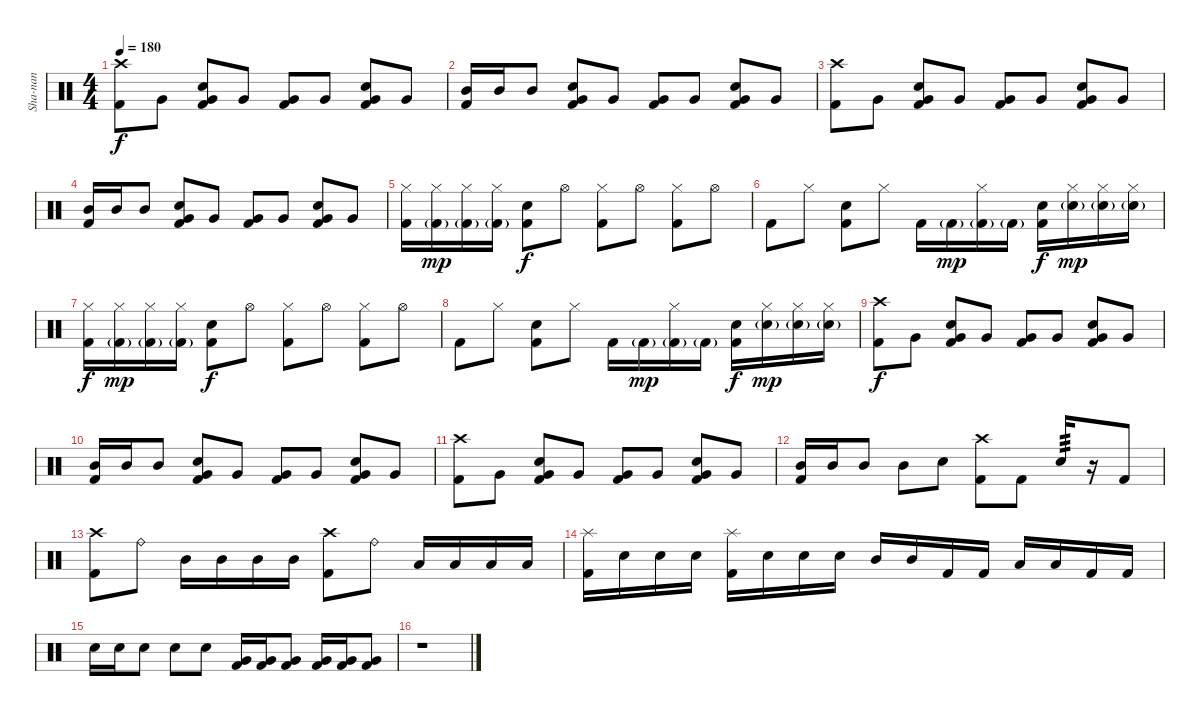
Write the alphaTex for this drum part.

\track ("Sha-nan" "Sha-nan") {instrument percussion}
\staff {score}
\articulation defaults
\ts (4 4)
\tempo 180
\clef neutral
\ks c
("Crash high (hit)" "Kick (hit) 2").8{dy f} "Very Low Tom (hit)".8 ("Very Low Tom (hit)" "Snare (hit) 2" "Kick (hit) 2").8 "Very Low Tom (hit)".8 ("Very Low Tom (hit)" "Kick (hit) 2").8 "Very Low Tom (hit)".8 ("Very Low Tom (hit)" "Snare (hit) 2" "Kick (hit) 2").8 "Very Low Tom (hit)".8 |
("Mid Tom (hit)" "Kick (hit) 2").16 "Mid Tom (hit)".16 "Mid Tom (hit)".8 ("Very Low Tom (hit)" "Snare (hit) 2" "Kick (hit) 2").8 "Very Low Tom (hit)".8 ("Very Low Tom (hit)" "Kick (hit) 2").8 "Very Low Tom (hit)".8 ("Very Low Tom (hit)" "Snare (hit) 2" "Kick (hit) 2").8 "Very Low Tom (hit)".8 |
("Crash high (hit)" "Kick (hit) 2").8 "Very Low Tom (hit)".8 ("Very Low Tom (hit)" "Snare (hit) 2" "Kick (hit) 2").8 "Very Low Tom (hit)".8 ("Very Low Tom (hit)" "Kick (hit) 2").8 "Very Low Tom (hit)".8 ("Very Low Tom (hit)" "Snare (hit) 2" "Kick (hit) 2").8 "Very Low Tom (hit)".8 |
("Mid Tom (hit)" "Kick (hit) 2").16 "Mid Tom (hit)".16 "Mid Tom (hit)".8 ("Very Low Tom (hit)" "Snare (hit) 2" "Kick (hit) 2").8 "Very Low Tom (hit)".8 ("Very Low Tom (hit)" "Kick (hit) 2").8 "Very Low Tom (hit)".8 ("Very Low Tom (hit)" "Snare (hit) 2" "Kick (hit) 2").8 "Very Low Tom (hit)".8 |
("Hi-Hat (closed)" "Kick (hit) 2").16 ("Hi-Hat (closed)" "Kick (hit) 2"{g}).16{dy mp} ("Hi-Hat (closed)" "Kick (hit) 2"{g}).16 ("Hi-Hat (closed)" "Kick (hit) 2"{g}).16 ("Snare (hit) 2" "Kick (hit) 2").8{dy f} "Hi-Hat (open)".8 ("Hi-Hat (closed)" "Kick (hit) 2").8 "Hi-Hat (open)".8 ("Hi-Hat (closed)" "Kick (hit) 2").8 "Hi-Hat (open)".8 |
"Kick (hit) 2".8 "Hi-Hat (closed)".8 ("Snare (hit) 2" "Kick (hit) 2").8 "Hi-Hat (closed)".8 "Kick (hit) 2".16 "Kick (hit) 2"{g}.16{dy mp} ("Hi-Hat (closed)" "Kick (hit) 2"{g}).16 "Kick (hit) 2"{g}.16 ("Snare (hit) 2" "Kick (hit) 2").16{dy f} ("Hi-Hat (closed)" "Snare (hit) 2"{g}).16{dy mp} ("Hi-Hat (closed)" "Snare (hit) 2"{g}).16 ("Hi-Hat (closed)" "Snare (hit) 2"{g}).16 |
("Hi-Hat (closed)" "Kick (hit) 2").16{dy f} ("Hi-Hat (closed)" "Kick (hit) 2"{g}).16{dy mp} ("Hi-Hat (closed)" "Kick (hit) 2"{g}).16 ("Hi-Hat (closed)" "Kick (hit) 2"{g}).16 ("Snare (hit) 2" "Kick (hit) 2").8{dy f} "Hi-Hat (open)".8 ("Hi-Hat (closed)" "Kick (hit) 2").8 "Hi-Hat (open)".8 ("Hi-Hat (closed)" "Kick (hit) 2").8 "Hi-Hat (open)".8 |
"Kick (hit) 2".8 "Hi-Hat (closed)".8 ("Snare (hit) 2" "Kick (hit) 2").8 "Hi-Hat (closed)".8 "Kick (hit) 2".16 "Kick (hit) 2"{g}.16{dy mp} ("Hi-Hat (closed)" "Kick (hit) 2"{g}).16 "Kick (hit) 2"{g}.16 ("Snare (hit) 2" "Kick (hit) 2").16{dy f} ("Hi-Hat (closed)" "Snare (hit) 2"{g}).16{dy mp} ("Hi-Hat (closed)" "Snare (hit) 2"{g}).16 ("Hi-Hat (closed)" "Snare (hit) 2"{g}).16 |
("Crash high (hit)" "Kick (hit) 2").8{dy f} "Very Low Tom (hit)".8 ("Very Low Tom (hit)" "Snare (hit) 2" "Kick (hit) 2").8 "Very Low Tom (hit)".8 ("Very Low Tom (hit)" "Kick (hit) 2").8 "Very Low Tom (hit)".8 ("Very Low Tom (hit)" "Snare (hit) 2" "Kick (hit) 2").8 "Very Low Tom (hit)".8 |
("Mid Tom (hit)" "Kick (hit) 2").16 "Mid Tom (hit)".16 "Mid Tom (hit)".8 ("Very Low Tom (hit)" "Snare (hit) 2" "Kick (hit) 2").8 "Very Low Tom (hit)".8 ("Very Low Tom (hit)" "Kick (hit) 2").8 "Very Low Tom (hit)".8 ("Very Low Tom (hit)" "Snare (hit) 2" "Kick (hit) 2").8 "Very Low Tom (hit)".8 |
("Crash high (hit)" "Kick (hit) 2").8 "Very Low Tom (hit)".8 ("Very Low Tom (hit)" "Snare (hit) 2" "Kick (hit) 2").8 "Very Low Tom (hit)".8 ("Very Low Tom (hit)" "Kick (hit) 2").8 "Very Low Tom (hit)".8 ("Very Low Tom (hit)" "Snare (hit) 2" "Kick (hit) 2").8 "Very Low Tom (hit)".8 |
("Mid Tom (hit)" "Kick (hit) 2").16 "Mid Tom (hit)".16 "Mid Tom (hit)".8 "Mid Tom (hit)".8 "Snare (hit) 2".8 ("Crash high (hit)" "Kick (hit) 2").8 "Kick (hit) 2".8 "Snare (hit) 2".16{tp 3} r.16 "Kick (hit) 2".8 |
("Crash high (hit)" "Kick (hit) 2").8 "Ride (bell)".8 "Mid Tom (hit)".16 "Mid Tom (hit)".16 "Mid Tom (hit)".16 "Mid Tom (hit)".16 ("Crash high (hit)" "Kick (hit) 2").8 "Ride (bell)".8 "Low Tom (hit)".16 "Low Tom (hit)".16 "Low Tom (hit)".16 "Low Tom (hit)".16 |
("Splash (hit)" "Kick (hit) 2").16 "Snare (hit) 2".16 "Snare (hit) 2".16 "Snare (hit) 2".16 ("Splash (hit)" "Kick (hit) 2").16 "Snare (hit) 2".16 "Snare (hit) 2".16 "Snare (hit) 2".16 "Mid Tom (hit)".16 "Mid Tom (hit)".16 "Kick (hit) 2".16 "Kick (hit) 2".16 "Low Tom (hit)".16 "Low Tom (hit)".16 "Kick (hit) 2".16 "Kick (hit) 2".16 |
"Snare (hit) 2".16 "Snare (hit) 2".16 "Snare (hit) 2".8 "Snare (hit) 2".8 "Snare (hit) 2".8 ("Very Low Tom (hit)" "Kick (hit) 2").16 ("Very Low Tom (hit)" "Kick (hit) 2").16 ("Very Low Tom (hit)" "Kick (hit) 2").8 ("Very Low Tom (hit)" "Kick (hit) 2").16 ("Very Low Tom (hit)" "Kick (hit) 2").16 ("Very Low Tom (hit)" "Kick (hit) 2").8 |
r.1
